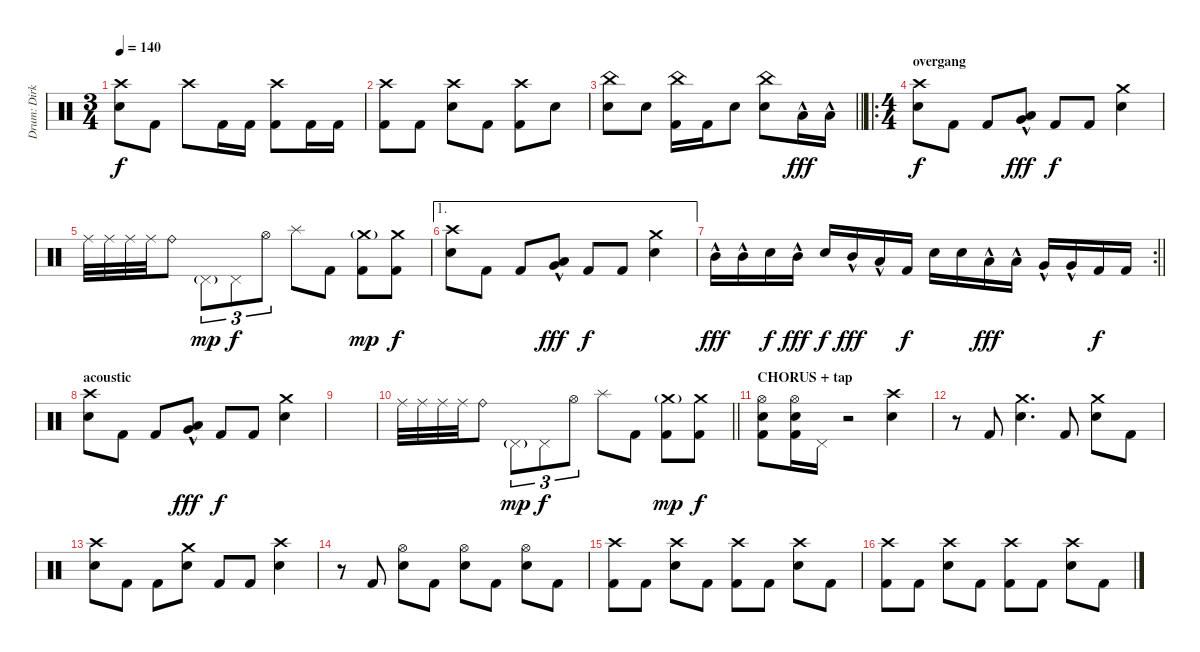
\track ("Drum: Dirk" "Drum: Dirk") {instrument percussion}
\staff {score}
\articulation defaults
\ts (3 4)
\tempo 140
\clef neutral
\ks c
("Crash high (hit)" "Electric Snare (hit)").8{dy f} "Kick (hit) 2".8 "Crash high (hit)".8 "Kick (hit) 2".16 "Kick (hit) 2".16 ("Crash high (hit)" "Kick (hit) 2").8 "Kick (hit) 2".16 "Kick (hit) 2".16 |
("Crash high (hit)" "Kick (hit) 2").8 "Kick (hit) 2".8 ("Crash high (hit)" "Electric Snare (hit)").8 "Kick (hit) 2".8 ("Crash high (hit)" "Kick (hit) 2").8 "Electric Snare (hit)".8 |
\barLineRight lightlight
("China (hit)" "Electric Snare (hit)").8 "Electric Snare (hit)".8 ("China (hit)" "Kick (hit) 2").16 "Kick (hit) 2".16 "Electric Snare (hit)".8 ("China (hit)" "Electric Snare (hit)").8 "Low Tom (hit)"{hac}.16{dy fff} "Low Tom (hit)"{hac}.16 |
\ro
\ts (4 4)
\section ("" "overgang")
("Crash high (hit)" "Electric Snare (hit)").8{dy f} "Kick (hit) 2".8 "Kick (hit) 2".8 ("Low Tom (hit)"{hac} "Very Low Tom (hit)"{hac}).8{dy fff} "Kick (hit) 2".8{dy f} "Kick (hit) 2".8 ("Crash medium (hit)" "Electric Snare (hit)").4 |
"Ride (middle)".32 "Ride (middle)".32 "Ride (middle)".32 "Ride (middle)".32 "Ride (bell)".8 "Pedal Hi-Hat (hit)"{g}.8{tu (3 2) dy mp} "Pedal Hi-Hat (hit)".8{tu (3 2) dy f} "Hi-Hat (open)".8{tu (3 2)} "Splash (hit)".8 "Kick (hit) 2".8 ("Crash medium (hit)"{g} "Kick (hit) 2").8{dy mp} ("Crash medium (hit)" "Kick (hit) 2").8{dy f} |
\ae 1
("Crash high (hit)" "Electric Snare (hit)").8 "Kick (hit) 2".8 "Kick (hit) 2".8 ("Low Tom (hit)"{hac} "Very Low Tom (hit)"{hac}).8{dy fff} "Kick (hit) 2".8{dy f} "Kick (hit) 2".8 ("Crash medium (hit)" "Electric Snare (hit)").4 |
\rc 2
\barLineRight lightlight "Mid Tom (hit)"{hac}.16{dy fff} "Mid Tom (hit)"{hac}.16 "Electric Snare (hit)".16{dy f} "Mid Tom (hit)"{hac}.16{dy fff} "Electric Snare (hit)".16{dy f} "Mid Tom (hit)"{hac}.16{dy fff} "Low Tom (hit)"{hac}.16 "Kick (hit) 2".16{dy f} "Electric Snare (hit)".16 "Electric Snare (hit)".16 "Low Tom (hit)"{hac}.16{dy fff} "Low Tom (hit)"{hac}.16 "Very Low Tom (hit)"{hac}.16 "Very Low Tom (hit)"{hac}.16 "Kick (hit) 2".16{dy f} "Kick (hit) 2".16
|
\section ("" "acoustic")
("Crash high (hit)" "Electric Snare (hit)").8 "Kick (hit) 2".8 "Kick (hit) 2".8 ("Low Tom (hit)"{hac} "Very Low Tom (hit)"{hac}).8{dy fff} "Kick (hit) 2".8{dy f} "Kick (hit) 2".8 ("Crash medium (hit)" "Electric Snare (hit)").4 |
|
\barLineRight lightlight "Ride (middle)".32 "Ride (middle)".32 "Ride (middle)".32 "Ride (middle)".32 "Ride (bell)".8 "Pedal Hi-Hat (hit)"{g}.8{tu (3 2) dy mp} "Pedal Hi-Hat (hit)".8{tu (3 2) dy f} "Hi-Hat (open)".8{tu (3 2)} "Splash (hit)".8 "Kick (hit) 2".8
("Crash medium (hit)"{g} "Kick (hit) 2").8{dy mp} ("Crash medium (hit)" "Kick (hit) 2").8{dy f} |
\section ("" "CHORUS + tap")
("Hi-Hat (open)" "Electric Snare (hit)" "Kick (hit) 2").8 ("Hi-Hat (open)" "Electric Snare (hit)" "Kick (hit) 2").16 "Pedal Hi-Hat (hit)".16 r.2 ("Crash high (hit)" "Electric Snare (hit)").4 |
r.8 "Kick (hit) 2".8 ("Crash medium (hit)" "Electric Snare (hit)").4{d} "Kick (hit) 2".8 ("Crash medium (hit)" "Electric Snare (hit)").8 "Kick (hit) 2".8 |
("Crash high (hit)" "Electric Snare (hit)").8 "Kick (hit) 2".8 "Kick (hit) 2".8 ("Crash medium (hit)" "Electric Snare (hit)").8 "Kick (hit) 2".8 "Kick (hit) 2".8 ("Crash high (hit)" "Electric Snare (hit)").4 |
r.8 "Kick (hit) 2".8 ("Hi-Hat (open)" "Electric Snare (hit)").8 "Kick (hit) 2".8 ("Hi-Hat (open)" "Electric Snare (hit)").8 "Kick (hit) 2".8 ("Hi-Hat (open)" "Electric Snare (hit)").8 "Kick (hit) 2".8 |
("Crash high (hit)" "Kick (hit) 2").8 "Kick (hit) 2".8 ("Crash high (hit)" "Electric Snare (hit)").8 "Kick (hit) 2".8 ("Crash high (hit)" "Kick (hit) 2").8 "Kick (hit) 2".8 ("Crash high (hit)" "Electric Snare (hit)").8 "Kick (hit) 2".8 |
("Crash high (hit)" "Kick (hit) 2").8 "Kick (hit) 2".8 ("Crash high (hit)" "Electric Snare (hit)").8 "Kick (hit) 2".8 ("Crash high (hit)" "Kick (hit) 2").8 "Kick (hit) 2".8 ("Crash high (hit)" "Electric Snare (hit)").8 "Kick (hit) 2".8
